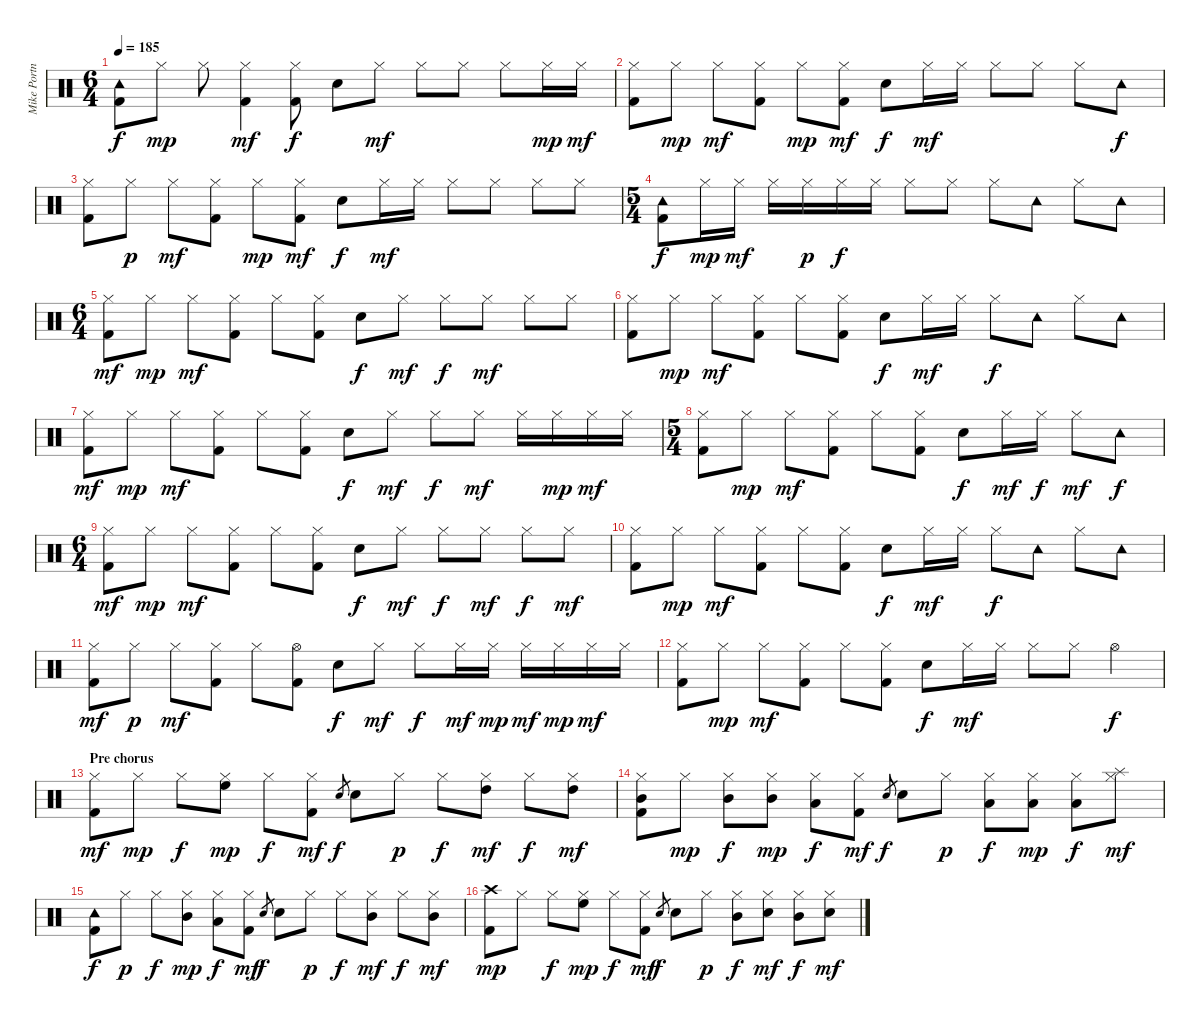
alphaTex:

\track ("Mike Portnoy" "Mike Portn") {instrument percussion}
\staff {score}
\articulation defaults
\ts (6 4)
\tempo 185
\clef neutral
\ks c
("Tambourine (hit)" "Kick (hit) 2").8{dy f} "Hi-Hat (closed)".8{dy mp} "Hi-Hat (closed)".8 ("Hi-Hat (closed)" "Kick (hit) 2").4{dy mf} ("Hi-Hat (closed)" "Kick (hit) 2").8{dy f} "Snare (hit) 2".8 "Hi-Hat (closed)".8{dy mf} "Hi-Hat (closed)".8 "Hi-Hat (closed)".8 "Hi-Hat (closed)".8 "Hi-Hat (closed)".16{dy mp} "Hi-Hat (closed)".16{dy mf} |
("Hi-Hat (closed)" "Kick (hit) 2").8 "Hi-Hat (closed)".8{dy mp} "Hi-Hat (closed)".8{dy mf} ("Hi-Hat (closed)" "Kick (hit) 2").8 "Hi-Hat (closed)".8{dy mp} ("Hi-Hat (closed)" "Kick (hit) 2").8{dy mf} "Snare (hit) 2".8{dy f} "Hi-Hat (closed)".16{dy mf} "Hi-Hat (closed)".16 "Hi-Hat (closed)".8 "Hi-Hat (closed)".8 "Hi-Hat (closed)".8 "Tambourine (hit)".8{dy f} |
("Hi-Hat (closed)" "Kick (hit) 2").8 "Hi-Hat (closed)".8{dy p} "Hi-Hat (closed)".8{dy mf} ("Hi-Hat (closed)" "Kick (hit) 2").8 "Hi-Hat (closed)".8{dy mp} ("Hi-Hat (closed)" "Kick (hit) 2").8{dy mf} "Snare (hit) 2".8{dy f} "Hi-Hat (closed)".16{dy mf} "Hi-Hat (closed)".16 "Hi-Hat (closed)".8 "Hi-Hat (closed)".8 "Hi-Hat (closed)".8 "Hi-Hat (closed)".8 |
\ts (5 4)
("Tambourine (hit)" "Kick (hit) 2").8{dy f} "Hi-Hat (closed)".16{dy mp} "Hi-Hat (closed)".16{dy mf} "Hi-Hat (closed)".16 "Hi-Hat (closed)".16{dy p} "Hi-Hat (closed)".16{dy f} "Hi-Hat (closed)".16 "Hi-Hat (closed)".8 "Hi-Hat (closed)".8 "Hi-Hat (closed)".8 "Tambourine (hit)".8 "Hi-Hat (closed)".8 "Tambourine (hit)".8 |
\ts (6 4)
("Hi-Hat (closed)" "Kick (hit) 2").8{dy mf} "Hi-Hat (closed)".8{dy mp} "Hi-Hat (closed)".8{dy mf} ("Hi-Hat (closed)" "Kick (hit) 2").8 "Hi-Hat (closed)".8 ("Hi-Hat (closed)" "Kick (hit) 2").8 "Snare (hit) 2".8{dy f} "Hi-Hat (closed)".8{dy mf} "Hi-Hat (closed)".8{dy f} "Hi-Hat (closed)".8{dy mf} "Hi-Hat (closed)".8 "Hi-Hat (closed)".8 |
("Hi-Hat (closed)" "Kick (hit) 2").8 "Hi-Hat (closed)".8{dy mp} "Hi-Hat (closed)".8{dy mf} ("Hi-Hat (closed)" "Kick (hit) 2").8 "Hi-Hat (closed)".8 ("Hi-Hat (closed)" "Kick (hit) 2").8 "Snare (hit) 2".8{dy f} "Hi-Hat (closed)".16{dy mf} "Hi-Hat (closed)".16 "Hi-Hat (closed)".8{dy f} "Tambourine (hit)".8 "Hi-Hat (closed)".8 "Tambourine (hit)".8 |
("Hi-Hat (closed)" "Kick (hit) 2").8{dy mf} "Hi-Hat (closed)".8{dy mp} "Hi-Hat (closed)".8{dy mf} ("Hi-Hat (closed)" "Kick (hit) 2").8 "Hi-Hat (closed)".8 ("Hi-Hat (closed)" "Kick (hit) 2").8 "Snare (hit) 2".8{dy f} "Hi-Hat (closed)".8{dy mf} "Hi-Hat (closed)".8{dy f} "Hi-Hat (closed)".8{dy mf} "Hi-Hat (closed)".16 "Hi-Hat (closed)".16{dy mp} "Hi-Hat (closed)".16{dy mf} "Hi-Hat (closed)".16 |
\ts (5 4)
("Hi-Hat (closed)" "Kick (hit) 2").8 "Hi-Hat (closed)".8{dy mp} "Hi-Hat (closed)".8{dy mf} ("Hi-Hat (closed)" "Kick (hit) 2").8 "Hi-Hat (closed)".8 ("Hi-Hat (closed)" "Kick (hit) 2").8 "Snare (hit) 2".8{dy f} "Hi-Hat (closed)".16{dy mf} "Hi-Hat (closed)".16{dy f} "Hi-Hat (closed)".8{dy mf} "Tambourine (hit)".8{dy f} |
\ts (6 4)
("Hi-Hat (closed)" "Kick (hit) 2").8{dy mf} "Hi-Hat (closed)".8{dy mp} "Hi-Hat (closed)".8{dy mf} ("Hi-Hat (closed)" "Kick (hit) 2").8 "Hi-Hat (closed)".8 ("Hi-Hat (closed)" "Kick (hit) 2").8 "Snare (hit) 2".8{dy f} "Hi-Hat (closed)".8{dy mf} "Hi-Hat (closed)".8{dy f} "Hi-Hat (closed)".8{dy mf} "Hi-Hat (closed)".8{dy f} "Hi-Hat (closed)".8{dy mf} |
("Hi-Hat (closed)" "Kick (hit) 2").8 "Hi-Hat (closed)".8{dy mp} "Hi-Hat (closed)".8{dy mf} ("Hi-Hat (closed)" "Kick (hit) 2").8 "Hi-Hat (closed)".8 ("Hi-Hat (closed)" "Kick (hit) 2").8 "Snare (hit) 2".8{dy f} "Hi-Hat (closed)".16{dy mf} "Hi-Hat (closed)".16 "Hi-Hat (closed)".8{dy f} "Tambourine (hit)".8 "Hi-Hat (closed)".8 "Tambourine (hit)".8 |
("Hi-Hat (closed)" "Kick (hit) 2").8{dy mf} "Hi-Hat (closed)".8{dy p} "Hi-Hat (closed)".8{dy mf} ("Hi-Hat (closed)" "Kick (hit) 2").8 "Hi-Hat (closed)".8 ("Hi-Hat (open)" "Kick (hit) 2").8 "Snare (hit) 2".8{dy f} "Hi-Hat (closed)".8{dy mf} "Hi-Hat (closed)".8{dy f} "Hi-Hat (closed)".16{dy mf} "Hi-Hat (closed)".16{dy mp} "Hi-Hat (closed)".16{dy mf} "Hi-Hat (closed)".16{dy mp} "Hi-Hat (closed)".16{dy mf} "Hi-Hat (closed)".16 |
("Hi-Hat (closed)" "Kick (hit) 2").8 "Hi-Hat (closed)".8{dy mp} "Hi-Hat (closed)".8{dy mf} ("Hi-Hat (closed)" "Kick (hit) 2").8 "Hi-Hat (closed)".8 ("Hi-Hat (closed)" "Kick (hit) 2").8 "Snare (hit) 2".8{dy f} "Hi-Hat (closed)".16{dy mf} "Hi-Hat (closed)".16 "Hi-Hat (closed)".8 "Hi-Hat (closed)".8 "Hi-Hat (open)".4{dy f} |
\section ("" "Pre chorus ")
("Hi-Hat (closed)" "Kick (hit) 2").8{dy mf} "Hi-Hat (closed)".8{dy mp} "Hi-Hat (closed)".8{dy f} ("Hi-Hat (closed)" "High Floor Tom (hit)").8{dy mp} "Hi-Hat (closed)".8{dy f} ("Hi-Hat (closed)" "Kick (hit) 2").8{dy mf} "Snare (hit) 2".8{gr dy f} "Snare (hit) 2".8 "Hi-Hat (closed)".8{dy p} "Hi-Hat (closed)".8{dy f} ("Hi-Hat (closed)" "High Tom (hit)").8{dy mf} "Hi-Hat (closed)".8{dy f} ("Hi-Hat (closed)" "High Tom (hit)").8{dy mf} |
("Hi-Hat (closed)" "Mid Tom (hit)" "Kick (hit) 2").8 "Hi-Hat (closed)".8{dy mp} ("Hi-Hat (closed)" "Mid Tom (hit)").8{dy f} ("Hi-Hat (closed)" "Mid Tom (hit)").8{dy mp} ("Hi-Hat (closed)" "Low Tom (hit)").8{dy f} ("Hi-Hat (closed)" "Kick (hit) 2").8{dy mf} "Snare (hit) 2".8{gr dy f} "Snare (hit) 2".8 "Hi-Hat (closed)".8{dy p} ("Hi-Hat (closed)" "Low Tom (hit)").8{dy f} ("Hi-Hat (closed)" "Low Tom (hit)").8{dy mp} ("Hi-Hat (closed)" "Low Tom (hit)").8{dy f} ("Hi-Hat (closed)" "Splash (hit)").8{dy mf} |
("Tambourine (hit)" "Kick (hit) 2").8{dy f} "Hi-Hat (closed)".8{dy p} "Hi-Hat (closed)".8{dy f} ("Hi-Hat (closed)" "Mid Tom (hit)").8{dy mp} ("Hi-Hat (closed)" "Low Tom (hit)").8{dy f} ("Hi-Hat (closed)" "Kick (hit) 2").8{dy mf} "Snare (hit) 2".8{gr dy f} "Snare (hit) 2".8 "Hi-Hat (closed)".8{dy p} "Hi-Hat (closed)".8{dy f} ("Hi-Hat (closed)" "Mid Tom (hit)").8{dy mf} "Hi-Hat (closed)".8{dy f} ("Hi-Hat (closed)" "Mid Tom (hit)").8{dy mf} |
("Crash high (hit)" "Kick (hit) 2").8{dy mp} "Hi-Hat (closed)".8 "Hi-Hat (closed)".8{dy f} ("Hi-Hat (closed)" "High Floor Tom (hit)").8{dy mp} "Hi-Hat (closed)".8{dy f} ("Hi-Hat (closed)" "Kick (hit) 2").8{dy mf} "Snare (hit) 2".8{gr dy f} "Snare (hit) 2".8 "Hi-Hat (closed)".8{dy p} ("Hi-Hat (closed)" "Mid Tom (hit)").8{dy f} ("Snare (hit) 2" "Hi-Hat (closed)").8{dy mf} ("Hi-Hat (closed)" "Mid Tom (hit)").8{dy f} ("Snare (hit) 2" "Hi-Hat (closed)").8{dy mf}
